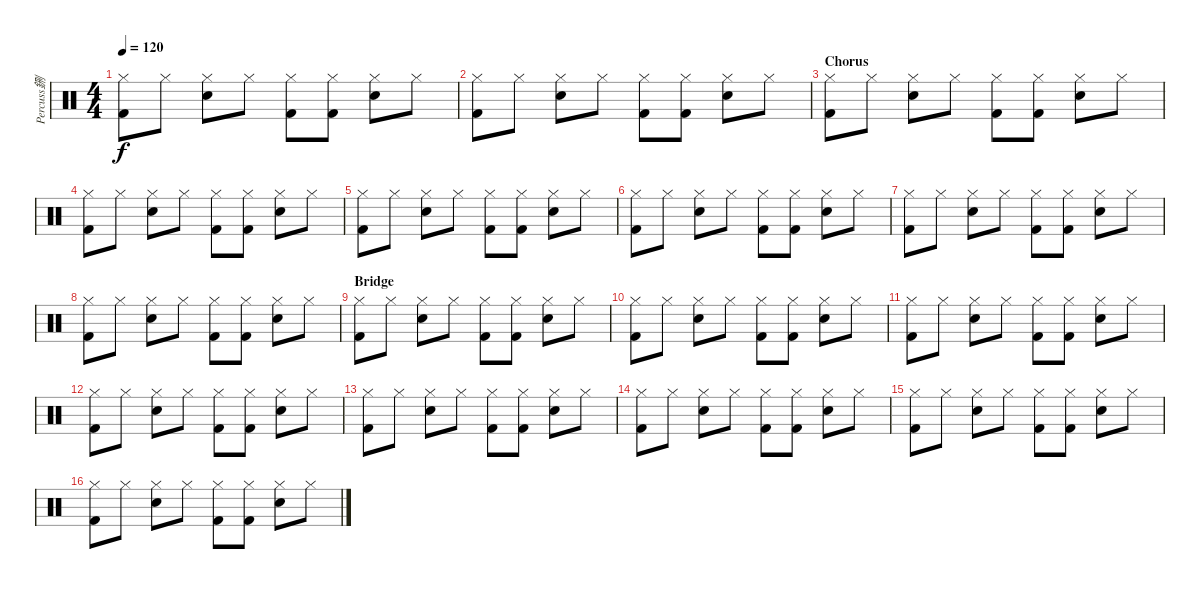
\track ("Percuss鉶" "Percuss鉶") {instrument percussion}
\staff {score}
\articulation defaults
\ts (4 4)
\tempo 120
\clef neutral
\ks c
("Hi-Hat (closed)" "Kick (hit) 2").8{dy f} "Hi-Hat (closed)".8 ("Hi-Hat (closed)" "Snare (hit) 2").8 "Hi-Hat (closed)".8 ("Hi-Hat (closed)" "Kick (hit) 2").8 ("Hi-Hat (closed)" "Kick (hit) 2").8 ("Hi-Hat (closed)" "Snare (hit) 2").8 "Hi-Hat (closed)".8 |
("Hi-Hat (closed)" "Kick (hit) 2").8 "Hi-Hat (closed)".8 ("Hi-Hat (closed)" "Snare (hit) 2").8 "Hi-Hat (closed)".8 ("Hi-Hat (closed)" "Kick (hit) 2").8 ("Hi-Hat (closed)" "Kick (hit) 2").8 ("Hi-Hat (closed)" "Snare (hit) 2").8 "Hi-Hat (closed)".8 |
\section ("" "Chorus")
("Hi-Hat (closed)" "Kick (hit) 2").8 "Hi-Hat (closed)".8 ("Hi-Hat (closed)" "Snare (hit) 2").8 "Hi-Hat (closed)".8 ("Hi-Hat (closed)" "Kick (hit) 2").8 ("Hi-Hat (closed)" "Kick (hit) 2").8 ("Hi-Hat (closed)" "Snare (hit) 2").8 "Hi-Hat (closed)".8 |
("Hi-Hat (closed)" "Kick (hit) 2").8 "Hi-Hat (closed)".8 ("Hi-Hat (closed)" "Snare (hit) 2").8 "Hi-Hat (closed)".8 ("Hi-Hat (closed)" "Kick (hit) 2").8 ("Hi-Hat (closed)" "Kick (hit) 2").8 ("Hi-Hat (closed)" "Snare (hit) 2").8 "Hi-Hat (closed)".8 |
("Hi-Hat (closed)" "Kick (hit) 2").8 "Hi-Hat (closed)".8 ("Hi-Hat (closed)" "Snare (hit) 2").8 "Hi-Hat (closed)".8 ("Hi-Hat (closed)" "Kick (hit) 2").8 ("Hi-Hat (closed)" "Kick (hit) 2").8 ("Hi-Hat (closed)" "Snare (hit) 2").8 "Hi-Hat (closed)".8 |
("Hi-Hat (closed)" "Kick (hit) 2").8 "Hi-Hat (closed)".8 ("Hi-Hat (closed)" "Snare (hit) 2").8 "Hi-Hat (closed)".8 ("Hi-Hat (closed)" "Kick (hit) 2").8 ("Hi-Hat (closed)" "Kick (hit) 2").8 ("Hi-Hat (closed)" "Snare (hit) 2").8 "Hi-Hat (closed)".8 |
("Hi-Hat (closed)" "Kick (hit) 2").8 "Hi-Hat (closed)".8 ("Hi-Hat (closed)" "Snare (hit) 2").8 "Hi-Hat (closed)".8 ("Hi-Hat (closed)" "Kick (hit) 2").8 ("Hi-Hat (closed)" "Kick (hit) 2").8 ("Hi-Hat (closed)" "Snare (hit) 2").8 "Hi-Hat (closed)".8 |
("Hi-Hat (closed)" "Kick (hit) 2").8 "Hi-Hat (closed)".8 ("Hi-Hat (closed)" "Snare (hit) 2").8 "Hi-Hat (closed)".8 ("Hi-Hat (closed)" "Kick (hit) 2").8 ("Hi-Hat (closed)" "Kick (hit) 2").8 ("Hi-Hat (closed)" "Snare (hit) 2").8 "Hi-Hat (closed)".8 |
\section ("" "Bridge")
("Hi-Hat (closed)" "Kick (hit) 2").8 "Hi-Hat (closed)".8 ("Hi-Hat (closed)" "Snare (hit) 2").8 "Hi-Hat (closed)".8 ("Hi-Hat (closed)" "Kick (hit) 2").8 ("Hi-Hat (closed)" "Kick (hit) 2").8 ("Hi-Hat (closed)" "Snare (hit) 2").8 "Hi-Hat (closed)".8 |
("Hi-Hat (closed)" "Kick (hit) 2").8 "Hi-Hat (closed)".8 ("Hi-Hat (closed)" "Snare (hit) 2").8 "Hi-Hat (closed)".8 ("Hi-Hat (closed)" "Kick (hit) 2").8 ("Hi-Hat (closed)" "Kick (hit) 2").8 ("Hi-Hat (closed)" "Snare (hit) 2").8 "Hi-Hat (closed)".8 |
("Hi-Hat (closed)" "Kick (hit) 2").8 "Hi-Hat (closed)".8 ("Hi-Hat (closed)" "Snare (hit) 2").8 "Hi-Hat (closed)".8 ("Hi-Hat (closed)" "Kick (hit) 2").8 ("Hi-Hat (closed)" "Kick (hit) 2").8 ("Hi-Hat (closed)" "Snare (hit) 2").8 "Hi-Hat (closed)".8 |
("Hi-Hat (closed)" "Kick (hit) 2").8 "Hi-Hat (closed)".8 ("Hi-Hat (closed)" "Snare (hit) 2").8 "Hi-Hat (closed)".8 ("Hi-Hat (closed)" "Kick (hit) 2").8 ("Hi-Hat (closed)" "Kick (hit) 2").8 ("Hi-Hat (closed)" "Snare (hit) 2").8 "Hi-Hat (closed)".8 |
("Hi-Hat (closed)" "Kick (hit) 2").8 "Hi-Hat (closed)".8 ("Hi-Hat (closed)" "Snare (hit) 2").8 "Hi-Hat (closed)".8 ("Hi-Hat (closed)" "Kick (hit) 2").8 ("Hi-Hat (closed)" "Kick (hit) 2").8 ("Hi-Hat (closed)" "Snare (hit) 2").8 "Hi-Hat (closed)".8 |
("Hi-Hat (closed)" "Kick (hit) 2").8 "Hi-Hat (closed)".8 ("Hi-Hat (closed)" "Snare (hit) 2").8 "Hi-Hat (closed)".8 ("Hi-Hat (closed)" "Kick (hit) 2").8 ("Hi-Hat (closed)" "Kick (hit) 2").8 ("Hi-Hat (closed)" "Snare (hit) 2").8 "Hi-Hat (closed)".8 |
("Hi-Hat (closed)" "Kick (hit) 2").8 "Hi-Hat (closed)".8 ("Hi-Hat (closed)" "Snare (hit) 2").8 "Hi-Hat (closed)".8 ("Hi-Hat (closed)" "Kick (hit) 2").8 ("Hi-Hat (closed)" "Kick (hit) 2").8 ("Hi-Hat (closed)" "Snare (hit) 2").8 "Hi-Hat (closed)".8 |
("Hi-Hat (closed)" "Kick (hit) 2").8 "Hi-Hat (closed)".8 ("Hi-Hat (closed)" "Snare (hit) 2").8 "Hi-Hat (closed)".8 ("Hi-Hat (closed)" "Kick (hit) 2").8 ("Hi-Hat (closed)" "Kick (hit) 2").8 ("Hi-Hat (closed)" "Snare (hit) 2").8 "Hi-Hat (closed)".8
